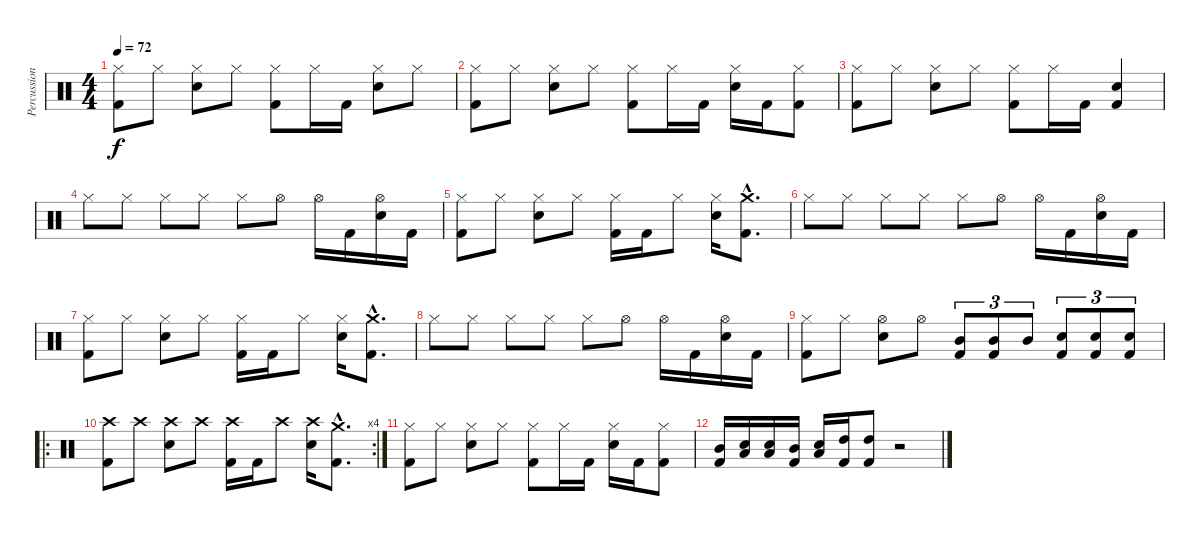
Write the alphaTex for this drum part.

\track ("Percussions" "Percussion") {instrument percussion}
\staff {score}
\articulation defaults
\ts (4 4)
\tempo 72
\clef neutral
\ks c
("Kick (hit) 2" "Hi-Hat (closed)").8{dy f} "Hi-Hat (closed)".8 ("Electric Snare (hit)" "Hi-Hat (closed)").8 "Hi-Hat (closed)".8 ("Kick (hit) 2" "Hi-Hat (closed)").8 "Hi-Hat (closed)".16 "Kick (hit) 2".16 ("Electric Snare (hit)" "Hi-Hat (closed)").8 "Hi-Hat (closed)".8 |
("Kick (hit) 2" "Hi-Hat (closed)").8 "Hi-Hat (closed)".8 ("Electric Snare (hit)" "Hi-Hat (closed)").8 "Hi-Hat (closed)".8 ("Hi-Hat (closed)" "Kick (hit) 2").8 "Hi-Hat (closed)".16 "Kick (hit) 2".16 ("Hi-Hat (closed)" "Electric Snare (hit)").16 "Kick (hit) 2".16 ("Hi-Hat (closed)" "Kick (hit) 2").8 |
("Kick (hit) 2" "Hi-Hat (closed)").8 "Hi-Hat (closed)".8 ("Electric Snare (hit)" "Hi-Hat (closed)").8 "Hi-Hat (closed)".8 ("Kick (hit) 2" "Hi-Hat (closed)").8 "Hi-Hat (closed)".16 "Kick (hit) 2".16 ("Kick (hit) 2" "Electric Snare (hit)").4 |
"Hi-Hat (closed)".8 "Hi-Hat (closed)".8 "Hi-Hat (closed)".8 "Hi-Hat (closed)".8 "Hi-Hat (closed)".8 "Hi-Hat (open)".8 "Hi-Hat (open)".16 "Kick (hit) 2".16 ("Hi-Hat (open)" "Electric Snare (hit)").16 "Kick (hit) 2".16 |
("Hi-Hat (closed)" "Kick (hit) 2").8 "Hi-Hat (closed)".8 ("Hi-Hat (closed)" "Electric Snare (hit)").8 "Hi-Hat (closed)".8 ("Hi-Hat (closed)" "Kick (hit) 2").16 "Kick (hit) 2".16 "Hi-Hat (closed)".8 ("Hi-Hat (closed)" "Electric Snare (hit)").16 ("Crash medium (hit)"{hac} "Kick (hit) 2"{hac}).8{d} |
"Hi-Hat (closed)".8 "Hi-Hat (closed)".8 "Hi-Hat (closed)".8 "Hi-Hat (closed)".8 "Hi-Hat (closed)".8 "Hi-Hat (open)".8 "Hi-Hat (open)".16 "Kick (hit) 2".16 ("Hi-Hat (open)" "Electric Snare (hit)").16 "Kick (hit) 2".16 |
("Hi-Hat (closed)" "Kick (hit) 2").8 "Hi-Hat (closed)".8 ("Hi-Hat (closed)" "Electric Snare (hit)").8 "Hi-Hat (closed)".8 ("Hi-Hat (closed)" "Kick (hit) 2").16 "Kick (hit) 2".16 "Hi-Hat (closed)".8 ("Hi-Hat (closed)" "Electric Snare (hit)").16 ("Crash medium (hit)"{hac} "Kick (hit) 2"{hac}).8{d} |
"Hi-Hat (closed)".8 "Hi-Hat (closed)".8 "Hi-Hat (closed)".8 "Hi-Hat (closed)".8 "Hi-Hat (closed)".8 "Hi-Hat (open)".8 "Hi-Hat (open)".16 "Kick (hit) 2".16 ("Hi-Hat (open)" "Electric Snare (hit)").16 "Kick (hit) 2".16 |
("Hi-Hat (closed)" "Kick (hit) 2").8 "Hi-Hat (closed)".8 ("Hi-Hat (open)" "Electric Snare (hit)").8 "Hi-Hat (open)".8 ("Mid Tom (hit)" "Kick (hit) 2").8{tu (3 2)} ("Mid Tom (hit)" "Kick (hit) 2").8{tu (3 2)} "Mid Tom (hit)".8{tu (3 2)} ("Electric Snare (hit)" "Kick (hit) 2").8{tu (3 2)} ("Electric Snare (hit)" "Kick (hit) 2").8{tu (3 2)} ("Electric Snare (hit)" "Kick (hit) 2").8{tu (3 2)} |
\ro
\rc 4
("Crash high (hit)" "Kick (hit) 2").8 "Crash high (hit)".8 ("Crash high (hit)" "Electric Snare (hit)").8 "Crash high (hit)".8 ("Crash high (hit)" "Kick (hit) 2").16 "Kick (hit) 2".16 "Crash high (hit)".8 ("Crash high (hit)" "Electric Snare (hit)").16 ("Crash medium (hit)"{hac} "Kick (hit) 2"{hac}).8{d} |
("Kick (hit) 2" "Hi-Hat (closed)").8 "Hi-Hat (closed)".8 ("Electric Snare (hit)" "Hi-Hat (closed)").8 "Hi-Hat (closed)".8 ("Hi-Hat (closed)" "Kick (hit) 2").8 "Hi-Hat (closed)".16 "Kick (hit) 2".16 ("Hi-Hat (closed)" "Electric Snare (hit)").16 "Kick (hit) 2".16 ("Hi-Hat (closed)" "Kick (hit) 2").8 |
("Mid Tom (hit)" "Kick (hit) 2").16 ("Low Tom (hit)" "Electric Snare (hit)").16 ("Low Tom (hit)" "Electric Snare (hit)").16 ("Mid Tom (hit)" "Kick (hit) 2").16 ("Low Tom (hit)" "Electric Snare (hit)").16 ("High Tom (hit)" "Kick (hit) 2").16 ("High Tom (hit)" "Kick (hit) 2").8 r.2
